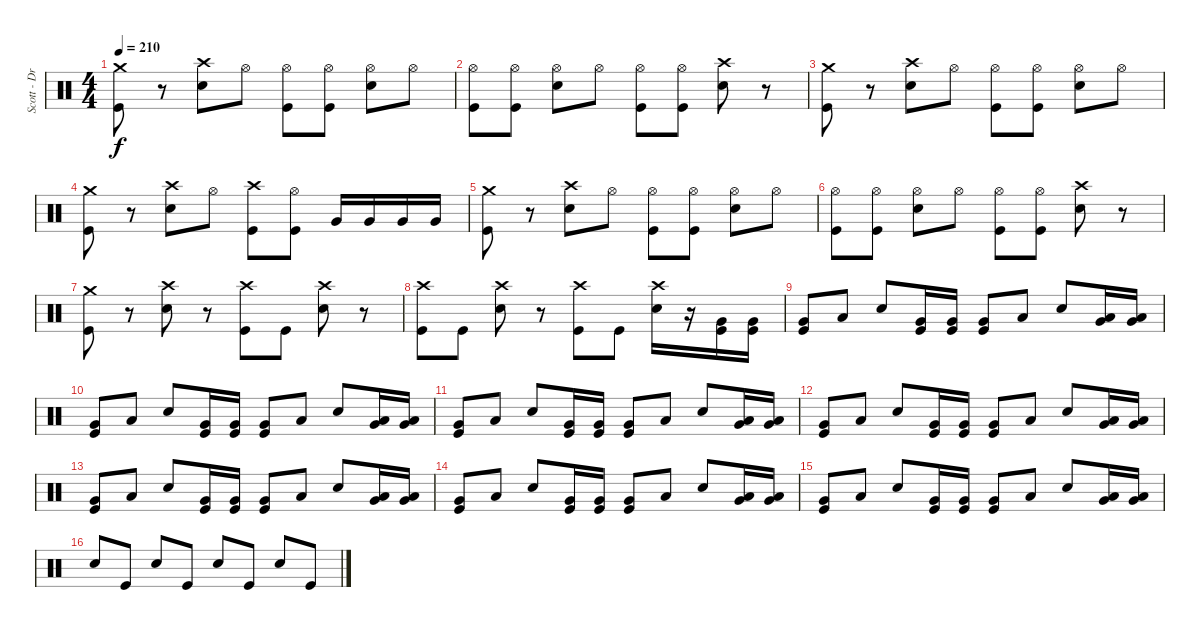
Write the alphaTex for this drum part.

\track ("Scott - Drums" "Scott - Dr") {instrument percussion}
\staff {score}
\articulation defaults
\ts (4 4)
\tempo 210
\clef neutral
\ks c
("Crash medium (hit)" "Kick (hit)").8{dy f} r.8 ("Crash high (hit)" "Electric Snare (hit)").8 "Hi-Hat (open)".8 ("Hi-Hat (open)" "Kick (hit)").8 ("Hi-Hat (open)" "Kick (hit)").8 ("Hi-Hat (open)" "Electric Snare (hit)").8 "Hi-Hat (open)".8 |
("Hi-Hat (open)" "Kick (hit)").8 ("Hi-Hat (open)" "Kick (hit)").8 ("Hi-Hat (open)" "Electric Snare (hit)").8 "Hi-Hat (open)".8 ("Hi-Hat (open)" "Kick (hit)").8 ("Hi-Hat (open)" "Kick (hit)").8 ("Crash high (hit)" "Electric Snare (hit)").8 r.8 |
("Crash medium (hit)" "Kick (hit)").8 r.8 ("Crash high (hit)" "Electric Snare (hit)").8 "Hi-Hat (open)".8 ("Hi-Hat (open)" "Kick (hit)").8 ("Hi-Hat (open)" "Kick (hit)").8 ("Hi-Hat (open)" "Electric Snare (hit)").8 "Hi-Hat (open)".8 |
("Crash medium (hit)" "Kick (hit)").8 r.8 ("Crash high (hit)" "Electric Snare (hit)").8 "Hi-Hat (open)".8 ("Crash high (hit)" "Kick (hit)").8 ("Hi-Hat (open)" "Kick (hit)").8 "Very Low Tom (hit)".16 "Very Low Tom (hit)".16 "Very Low Tom (hit)".16 "Very Low Tom (hit)".16 |
("Crash medium (hit)" "Kick (hit)").8 r.8 ("Crash high (hit)" "Electric Snare (hit)").8 "Hi-Hat (open)".8 ("Hi-Hat (open)" "Kick (hit)").8 ("Hi-Hat (open)" "Kick (hit)").8 ("Hi-Hat (open)" "Electric Snare (hit)").8 "Hi-Hat (open)".8 |
("Hi-Hat (open)" "Kick (hit)").8 ("Hi-Hat (open)" "Kick (hit)").8 ("Hi-Hat (open)" "Electric Snare (hit)").8 "Hi-Hat (open)".8 ("Hi-Hat (open)" "Kick (hit)").8 ("Hi-Hat (open)" "Kick (hit)").8 ("Crash high (hit)" "Electric Snare (hit)").8 r.8 |
("Crash medium (hit)" "Kick (hit)").8 r.8 ("Crash high (hit)" "Electric Snare (hit)").8 r.8 ("Crash high (hit)" "Kick (hit)").8 "Kick (hit)".8 ("Crash high (hit)" "Electric Snare (hit)").8 r.8 |
("Crash high (hit)" "Kick (hit)").8 "Kick (hit)".8 ("Crash high (hit)" "Electric Snare (hit)").8 r.8 ("Crash high (hit)" "Kick (hit)").8 "Kick (hit)".8 ("Crash high (hit)" "Electric Snare (hit)").16 r.16 ("Kick (hit)" "Very Low Tom (hit)").16 ("Kick (hit)" "Very Low Tom (hit)").16 |
("Kick (hit)" "Very Low Tom (hit)").8 "Low Tom (hit)".8 "Electric Snare (hit)".8 ("Kick (hit)" "Very Low Tom (hit)").16 ("Kick (hit)" "Very Low Tom (hit)").16 ("Kick (hit)" "Very Low Tom (hit)").8 "Low Tom (hit)".8 "Electric Snare (hit)".8 ("Low Tom (hit)" "Very Low Tom (hit)").16 ("Low Tom (hit)" "Very Low Tom (hit)").16 |
("Kick (hit)" "Very Low Tom (hit)").8 "Low Tom (hit)".8 "Electric Snare (hit)".8 ("Kick (hit)" "Very Low Tom (hit)").16 ("Kick (hit)" "Very Low Tom (hit)").16 ("Kick (hit)" "Very Low Tom (hit)").8 "Low Tom (hit)".8 "Electric Snare (hit)".8 ("Low Tom (hit)" "Very Low Tom (hit)").16 ("Low Tom (hit)" "Very Low Tom (hit)").16 |
("Kick (hit)" "Very Low Tom (hit)").8 "Low Tom (hit)".8 "Electric Snare (hit)".8 ("Kick (hit)" "Very Low Tom (hit)").16 ("Kick (hit)" "Very Low Tom (hit)").16 ("Kick (hit)" "Very Low Tom (hit)").8 "Low Tom (hit)".8 "Electric Snare (hit)".8 ("Low Tom (hit)" "Very Low Tom (hit)").16 ("Low Tom (hit)" "Very Low Tom (hit)").16 |
("Kick (hit)" "Very Low Tom (hit)").8 "Low Tom (hit)".8 "Electric Snare (hit)".8 ("Kick (hit)" "Very Low Tom (hit)").16 ("Kick (hit)" "Very Low Tom (hit)").16 ("Kick (hit)" "Very Low Tom (hit)").8 "Low Tom (hit)".8 "Electric Snare (hit)".8 ("Low Tom (hit)" "Very Low Tom (hit)").16 ("Low Tom (hit)" "Very Low Tom (hit)").16 |
("Kick (hit)" "Very Low Tom (hit)").8 "Low Tom (hit)".8 "Electric Snare (hit)".8 ("Kick (hit)" "Very Low Tom (hit)").16 ("Kick (hit)" "Very Low Tom (hit)").16 ("Kick (hit)" "Very Low Tom (hit)").8 "Low Tom (hit)".8 "Electric Snare (hit)".8 ("Low Tom (hit)" "Very Low Tom (hit)").16 ("Low Tom (hit)" "Very Low Tom (hit)").16 |
("Kick (hit)" "Very Low Tom (hit)").8 "Low Tom (hit)".8 "Electric Snare (hit)".8 ("Kick (hit)" "Very Low Tom (hit)").16 ("Kick (hit)" "Very Low Tom (hit)").16 ("Kick (hit)" "Very Low Tom (hit)").8 "Low Tom (hit)".8 "Electric Snare (hit)".8 ("Low Tom (hit)" "Very Low Tom (hit)").16 ("Low Tom (hit)" "Very Low Tom (hit)").16 |
("Kick (hit)" "Very Low Tom (hit)").8 "Low Tom (hit)".8 "Electric Snare (hit)".8 ("Kick (hit)" "Very Low Tom (hit)").16 ("Kick (hit)" "Very Low Tom (hit)").16 ("Kick (hit)" "Very Low Tom (hit)").8 "Low Tom (hit)".8 "Electric Snare (hit)".8 ("Low Tom (hit)" "Very Low Tom (hit)").16 ("Low Tom (hit)" "Very Low Tom (hit)").16 |
"Electric Snare (hit)".8 "Kick (hit)".8 "Electric Snare (hit)".8 "Kick (hit)".8 "Electric Snare (hit)".8 "Kick (hit)".8 "Electric Snare (hit)".8 "Kick (hit)".8
